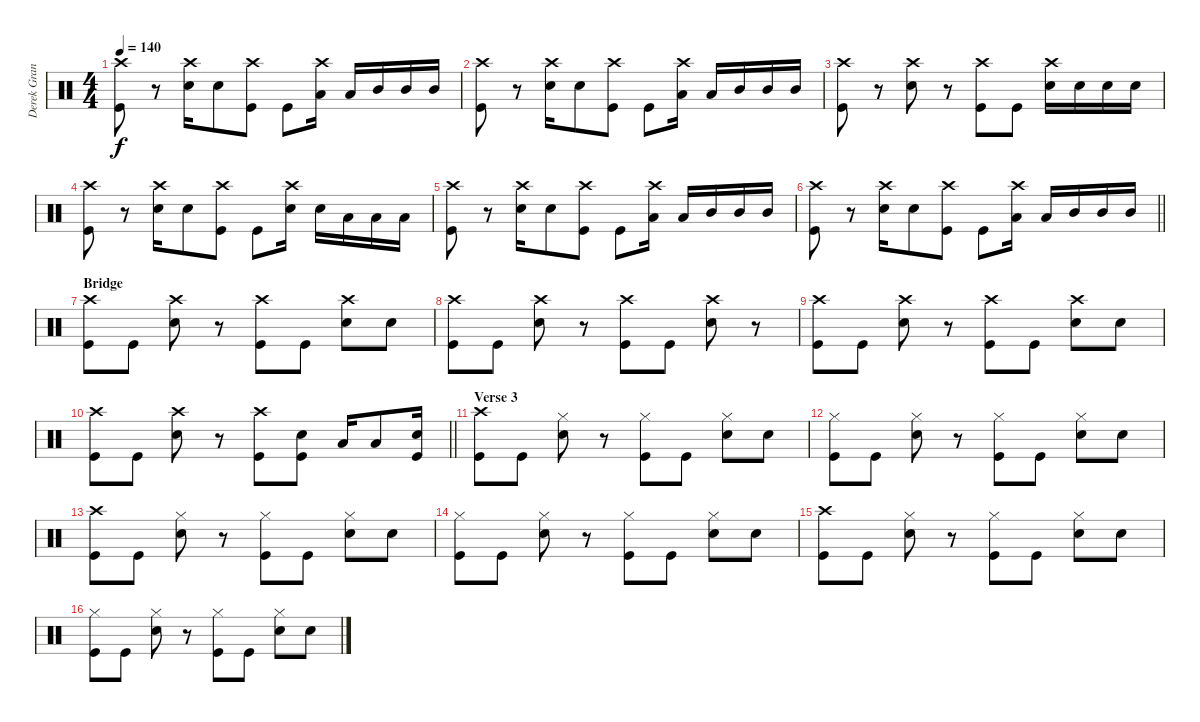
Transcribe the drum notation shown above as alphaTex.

\track ("Derek Grant" "Derek Gran") {instrument percussion}
\staff {score}
\articulation defaults
\ts (4 4)
\tempo 140
\clef neutral
\ks c
("Crash high (hit)" "Kick (hit)").8{dy f} r.8 ("Crash high (hit)" "Snare (hit) 2").16 "Snare (hit) 2".8 ("Crash high (hit)" "Kick (hit)").8 "Kick (hit)".8 ("Crash high (hit)" "Low Tom (hit)").16 "Low Tom (hit)".16 "Mid Tom (hit)".16 "Mid Tom (hit)".16 "Mid Tom (hit)".16 |
("Crash high (hit)" "Kick (hit)").8 r.8 ("Crash high (hit)" "Snare (hit) 2").16 "Snare (hit) 2".8 ("Crash high (hit)" "Kick (hit)").8 "Kick (hit)".8 ("Crash high (hit)" "Low Tom (hit)").16 "Low Tom (hit)".16 "Mid Tom (hit)".16 "Mid Tom (hit)".16 "Mid Tom (hit)".16 |
("Crash high (hit)" "Kick (hit)").8 r.8 ("Crash high (hit)" "Snare (hit) 2").8 r.8 ("Crash high (hit)" "Kick (hit)").8 "Kick (hit)".8 ("Crash high (hit)" "Snare (hit) 2").16 "Snare (hit) 2".16 "Snare (hit) 2".16 "Snare (hit) 2".16 |
("Crash high (hit)" "Kick (hit)").8 r.8 ("Crash high (hit)" "Snare (hit) 2").16 "Snare (hit) 2".8 ("Crash high (hit)" "Kick (hit)").8 "Kick (hit)".8 ("Crash high (hit)" "Snare (hit) 2").16 "Snare (hit) 2".16 "Low Tom (hit)".16 "Low Tom (hit)".16 "Low Tom (hit)".16 |
("Crash high (hit)" "Kick (hit)").8 r.8 ("Crash high (hit)" "Snare (hit) 2").16 "Snare (hit) 2".8 ("Crash high (hit)" "Kick (hit)").8 "Kick (hit)".8 ("Crash high (hit)" "Low Tom (hit)").16 "Low Tom (hit)".16 "Mid Tom (hit)".16 "Mid Tom (hit)".16 "Mid Tom (hit)".16 |
\barLineRight lightlight
("Crash high (hit)" "Kick (hit)").8 r.8 ("Crash high (hit)" "Snare (hit) 2").16 "Snare (hit) 2".8 ("Crash high (hit)" "Kick (hit)").8 "Kick (hit)".8 ("Crash high (hit)" "Low Tom (hit)").16 "Low Tom (hit)".16 "Mid Tom (hit)".16 "Mid Tom (hit)".16 "Mid Tom (hit)".16 |
\section ("" "Bridge")
("Crash high (hit)" "Kick (hit)").8 "Kick (hit)".8 ("Crash high (hit)" "Snare (hit) 2").8 r.8 ("Crash high (hit)" "Kick (hit)").8 "Kick (hit)".8 ("Crash high (hit)" "Snare (hit) 2").8 "Snare (hit) 2".8 |
("Crash high (hit)" "Kick (hit)").8 "Kick (hit)".8 ("Crash high (hit)" "Snare (hit) 2").8 r.8 ("Crash high (hit)" "Kick (hit)").8 "Kick (hit)".8 ("Crash high (hit)" "Snare (hit) 2").8 r.8 |
("Crash high (hit)" "Kick (hit)").8 "Kick (hit)".8 ("Crash high (hit)" "Snare (hit) 2").8 r.8 ("Crash high (hit)" "Kick (hit)").8 "Kick (hit)".8 ("Crash high (hit)" "Snare (hit) 2").8 "Snare (hit) 2".8 |
\barLineRight lightlight
("Crash high (hit)" "Kick (hit)").8 "Kick (hit)".8 ("Crash high (hit)" "Snare (hit) 2").8 r.8 ("Crash high (hit)" "Kick (hit)").8 ("Snare (hit) 2" "Kick (hit)").8 "Low Tom (hit)".16 "Low Tom (hit)".8 ("Snare (hit) 2" "Kick (hit)").16 |
\section ("" "Verse 3")
("Crash high (hit)" "Kick (hit)").8 "Kick (hit)".8 ("Hi-Hat (closed)" "Snare (hit) 2").8 r.8 ("Hi-Hat (closed)" "Kick (hit)").8 "Kick (hit)".8 ("Hi-Hat (closed)" "Snare (hit) 2").8 "Snare (hit) 2".8 |
("Hi-Hat (closed)" "Kick (hit)").8 "Kick (hit)".8 ("Hi-Hat (closed)" "Snare (hit) 2").8 r.8 ("Hi-Hat (closed)" "Kick (hit)").8 "Kick (hit)".8 ("Hi-Hat (closed)" "Snare (hit) 2").8 "Snare (hit) 2".8 |
("Crash high (hit)" "Kick (hit)").8 "Kick (hit)".8 ("Hi-Hat (closed)" "Snare (hit) 2").8 r.8 ("Hi-Hat (closed)" "Kick (hit)").8 "Kick (hit)".8 ("Hi-Hat (closed)" "Snare (hit) 2").8 "Snare (hit) 2".8 |
("Hi-Hat (closed)" "Kick (hit)").8 "Kick (hit)".8 ("Hi-Hat (closed)" "Snare (hit) 2").8 r.8 ("Hi-Hat (closed)" "Kick (hit)").8 "Kick (hit)".8 ("Hi-Hat (closed)" "Snare (hit) 2").8 "Snare (hit) 2".8 |
("Crash high (hit)" "Kick (hit)").8 "Kick (hit)".8 ("Hi-Hat (closed)" "Snare (hit) 2").8 r.8 ("Hi-Hat (closed)" "Kick (hit)").8 "Kick (hit)".8 ("Hi-Hat (closed)" "Snare (hit) 2").8 "Snare (hit) 2".8 |
("Hi-Hat (closed)" "Kick (hit)").8 "Kick (hit)".8 ("Hi-Hat (closed)" "Snare (hit) 2").8 r.8 ("Hi-Hat (closed)" "Kick (hit)").8 "Kick (hit)".8 ("Hi-Hat (closed)" "Snare (hit) 2").8 "Snare (hit) 2".8
